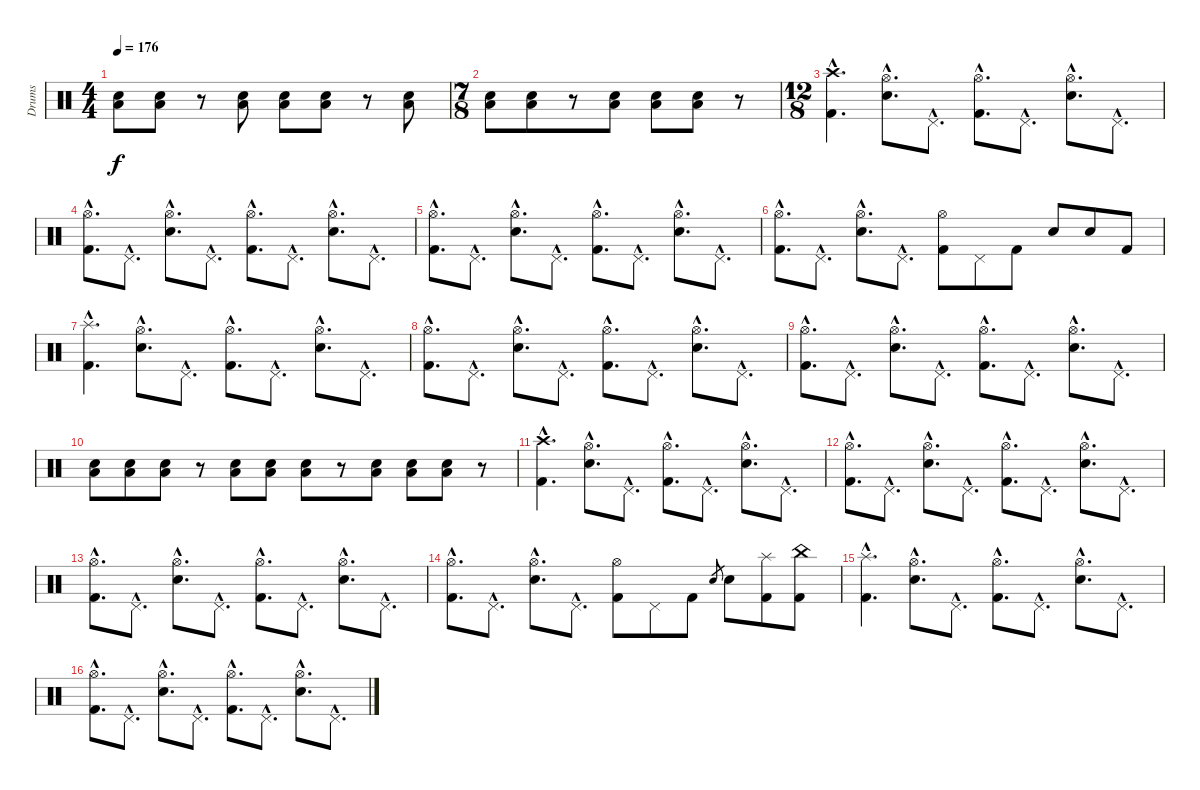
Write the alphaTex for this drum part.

\track ("Drums" "Drums") {instrument percussion}
\staff {score}
\articulation defaults
\ts (4 4)
\tempo 176
\clef neutral
\ks c
("Low Floor Tom (hit)" "Snare (hit) 2").8{dy f} ("Low Floor Tom (hit)" "Snare (hit) 2").8 r.8 ("Low Floor Tom (hit)" "Snare (hit) 2").8 ("Low Floor Tom (hit)" "Snare (hit) 2").8 ("Low Floor Tom (hit)" "Snare (hit) 2").8 r.8 ("Low Floor Tom (hit)" "Snare (hit) 2").8 |
\ts (7 8)
("Low Floor Tom (hit)" "Snare (hit) 2").8 ("Low Floor Tom (hit)" "Snare (hit) 2").8 r.8 ("Snare (hit) 2" "Low Floor Tom (hit)").8 ("Snare (hit) 2" "Low Floor Tom (hit)").8 ("Snare (hit) 2" "Low Floor Tom (hit)").8 r.8 |
\ts (12 8)
("Crash high (hit)"{hac} "Kick (hit) 2"{hac}).4{d} ("Hi-Hat (open)"{hac} "Snare (hit) 2"{hac}).8{d} "Pedal Hi-Hat (hit)"{hac}.8{d} ("Hi-Hat (open)"{hac} "Kick (hit) 2"{hac}).8{d} "Pedal Hi-Hat (hit)"{hac}.8{d} ("Hi-Hat (open)"{hac} "Snare (hit) 2"{hac}).8{d} "Pedal Hi-Hat (hit)"{hac}.8{d} |
("Hi-Hat (open)"{hac} "Kick (hit) 2"{hac}).8{d} "Pedal Hi-Hat (hit)"{hac}.8{d} ("Hi-Hat (open)"{hac} "Snare (hit) 2"{hac}).8{d} "Pedal Hi-Hat (hit)"{hac}.8{d} ("Hi-Hat (open)"{hac} "Kick (hit) 2"{hac}).8{d} "Pedal Hi-Hat (hit)"{hac}.8{d} ("Hi-Hat (open)"{hac} "Snare (hit) 2"{hac}).8{d} "Pedal Hi-Hat (hit)"{hac}.8{d} |
("Hi-Hat (open)"{hac} "Kick (hit) 2"{hac}).8{d} "Pedal Hi-Hat (hit)"{hac}.8{d} ("Hi-Hat (open)"{hac} "Snare (hit) 2"{hac}).8{d} "Pedal Hi-Hat (hit)"{hac}.8{d} ("Hi-Hat (open)"{hac} "Kick (hit) 2"{hac}).8{d} "Pedal Hi-Hat (hit)"{hac}.8{d} ("Hi-Hat (open)"{hac} "Snare (hit) 2"{hac}).8{d} "Pedal Hi-Hat (hit)"{hac}.8{d} |
("Hi-Hat (open)"{hac} "Kick (hit) 2"{hac}).8{d} "Pedal Hi-Hat (hit)"{hac}.8{d} ("Hi-Hat (open)"{hac} "Snare (hit) 2"{hac}).8{d} "Pedal Hi-Hat (hit)"{hac}.8{d} ("Hi-Hat (open)" "Kick (hit) 2").8 "Pedal Hi-Hat (hit)".8 "Kick (hit) 2".8 "Snare (hit) 2".8 "Snare (hit) 2".8 "Kick (hit) 2".8 |
("Kick (hit) 2"{hac} "Splash (hit)"{hac}).4{d} ("Hi-Hat (open)"{hac} "Snare (hit) 2"{hac}).8{d} "Pedal Hi-Hat (hit)"{hac}.8{d} ("Hi-Hat (open)"{hac} "Kick (hit) 2"{hac}).8{d} "Pedal Hi-Hat (hit)"{hac}.8{d} ("Hi-Hat (open)"{hac} "Snare (hit) 2"{hac}).8{d} "Pedal Hi-Hat (hit)"{hac}.8{d} |
("Hi-Hat (open)"{hac} "Kick (hit) 2"{hac}).8{d} "Pedal Hi-Hat (hit)"{hac}.8{d} ("Hi-Hat (open)"{hac} "Snare (hit) 2"{hac}).8{d} "Pedal Hi-Hat (hit)"{hac}.8{d} ("Hi-Hat (open)"{hac} "Kick (hit) 2"{hac}).8{d} "Pedal Hi-Hat (hit)"{hac}.8{d} ("Hi-Hat (open)"{hac} "Snare (hit) 2"{hac}).8{d} "Pedal Hi-Hat (hit)"{hac}.8{d} |
("Hi-Hat (open)"{hac} "Kick (hit) 2"{hac}).8{d} "Pedal Hi-Hat (hit)"{hac}.8{d} ("Hi-Hat (open)"{hac} "Snare (hit) 2"{hac}).8{d} "Pedal Hi-Hat (hit)"{hac}.8{d} ("Hi-Hat (open)"{hac} "Kick (hit) 2"{hac}).8{d} "Pedal Hi-Hat (hit)"{hac}.8{d} ("Hi-Hat (open)"{hac} "Snare (hit) 2"{hac}).8{d} "Pedal Hi-Hat (hit)"{hac}.8{d} |
("Low Floor Tom (hit)" "Snare (hit) 2").8 ("Low Floor Tom (hit)" "Snare (hit) 2").8 ("Low Floor Tom (hit)" "Snare (hit) 2").8 r.8 ("Low Floor Tom (hit)" "Snare (hit) 2").8 ("Snare (hit) 2" "Low Floor Tom (hit)").8 ("Low Floor Tom (hit)" "Snare (hit) 2").8 r.8 ("Low Floor Tom (hit)" "Snare (hit) 2").8 ("Low Floor Tom (hit)" "Snare (hit) 2").8 ("Low Floor Tom (hit)" "Snare (hit) 2").8 r.8 |
("Crash high (hit)"{hac} "Kick (hit) 2"{hac}).4{d} ("Hi-Hat (open)"{hac} "Snare (hit) 2"{hac}).8{d} "Pedal Hi-Hat (hit)"{hac}.8{d} ("Hi-Hat (open)"{hac} "Kick (hit) 2"{hac}).8{d} "Pedal Hi-Hat (hit)"{hac}.8{d} ("Hi-Hat (open)"{hac} "Snare (hit) 2"{hac}).8{d} "Pedal Hi-Hat (hit)"{hac}.8{d} |
("Hi-Hat (open)"{hac} "Kick (hit) 2"{hac}).8{d} "Pedal Hi-Hat (hit)"{hac}.8{d} ("Hi-Hat (open)"{hac} "Snare (hit) 2"{hac}).8{d} "Pedal Hi-Hat (hit)"{hac}.8{d} ("Hi-Hat (open)"{hac} "Kick (hit) 2"{hac}).8{d} "Pedal Hi-Hat (hit)"{hac}.8{d} ("Hi-Hat (open)"{hac} "Snare (hit) 2"{hac}).8{d} "Pedal Hi-Hat (hit)"{hac}.8{d} |
("Hi-Hat (open)"{hac} "Kick (hit) 2"{hac}).8{d} "Pedal Hi-Hat (hit)"{hac}.8{d} ("Hi-Hat (open)"{hac} "Snare (hit) 2"{hac}).8{d} "Pedal Hi-Hat (hit)"{hac}.8{d} ("Hi-Hat (open)"{hac} "Kick (hit) 2"{hac}).8{d} "Pedal Hi-Hat (hit)"{hac}.8{d} ("Hi-Hat (open)"{hac} "Snare (hit) 2"{hac}).8{d} "Pedal Hi-Hat (hit)"{hac}.8{d} |
("Hi-Hat (open)"{hac} "Kick (hit) 2"{hac}).8{d} "Pedal Hi-Hat (hit)"{hac}.8{d} ("Hi-Hat (open)"{hac} "Snare (hit) 2"{hac}).8{d} "Pedal Hi-Hat (hit)"{hac}.8{d} ("Hi-Hat (open)" "Kick (hit) 2").8 "Pedal Hi-Hat (hit)".8 "Kick (hit) 2".8 "Snare (hit) 2".8{gr} "Snare (hit) 2".8 ("Splash (hit)" "Kick (hit) 2").8 ("China (hit)" "Kick (hit) 2").8 |
("Kick (hit) 2"{hac} "Splash (hit)"{hac}).4{d} ("Hi-Hat (open)"{hac} "Snare (hit) 2"{hac}).8{d} "Pedal Hi-Hat (hit)"{hac}.8{d} ("Hi-Hat (open)"{hac} "Kick (hit) 2"{hac}).8{d} "Pedal Hi-Hat (hit)"{hac}.8{d} ("Hi-Hat (open)"{hac} "Snare (hit) 2"{hac}).8{d} "Pedal Hi-Hat (hit)"{hac}.8{d} |
("Hi-Hat (open)"{hac} "Kick (hit) 2"{hac}).8{d} "Pedal Hi-Hat (hit)"{hac}.8{d} ("Hi-Hat (open)"{hac} "Snare (hit) 2"{hac}).8{d} "Pedal Hi-Hat (hit)"{hac}.8{d} ("Hi-Hat (open)"{hac} "Kick (hit) 2"{hac}).8{d} "Pedal Hi-Hat (hit)"{hac}.8{d} ("Hi-Hat (open)"{hac} "Snare (hit) 2"{hac}).8{d} "Pedal Hi-Hat (hit)"{hac}.8{d}
